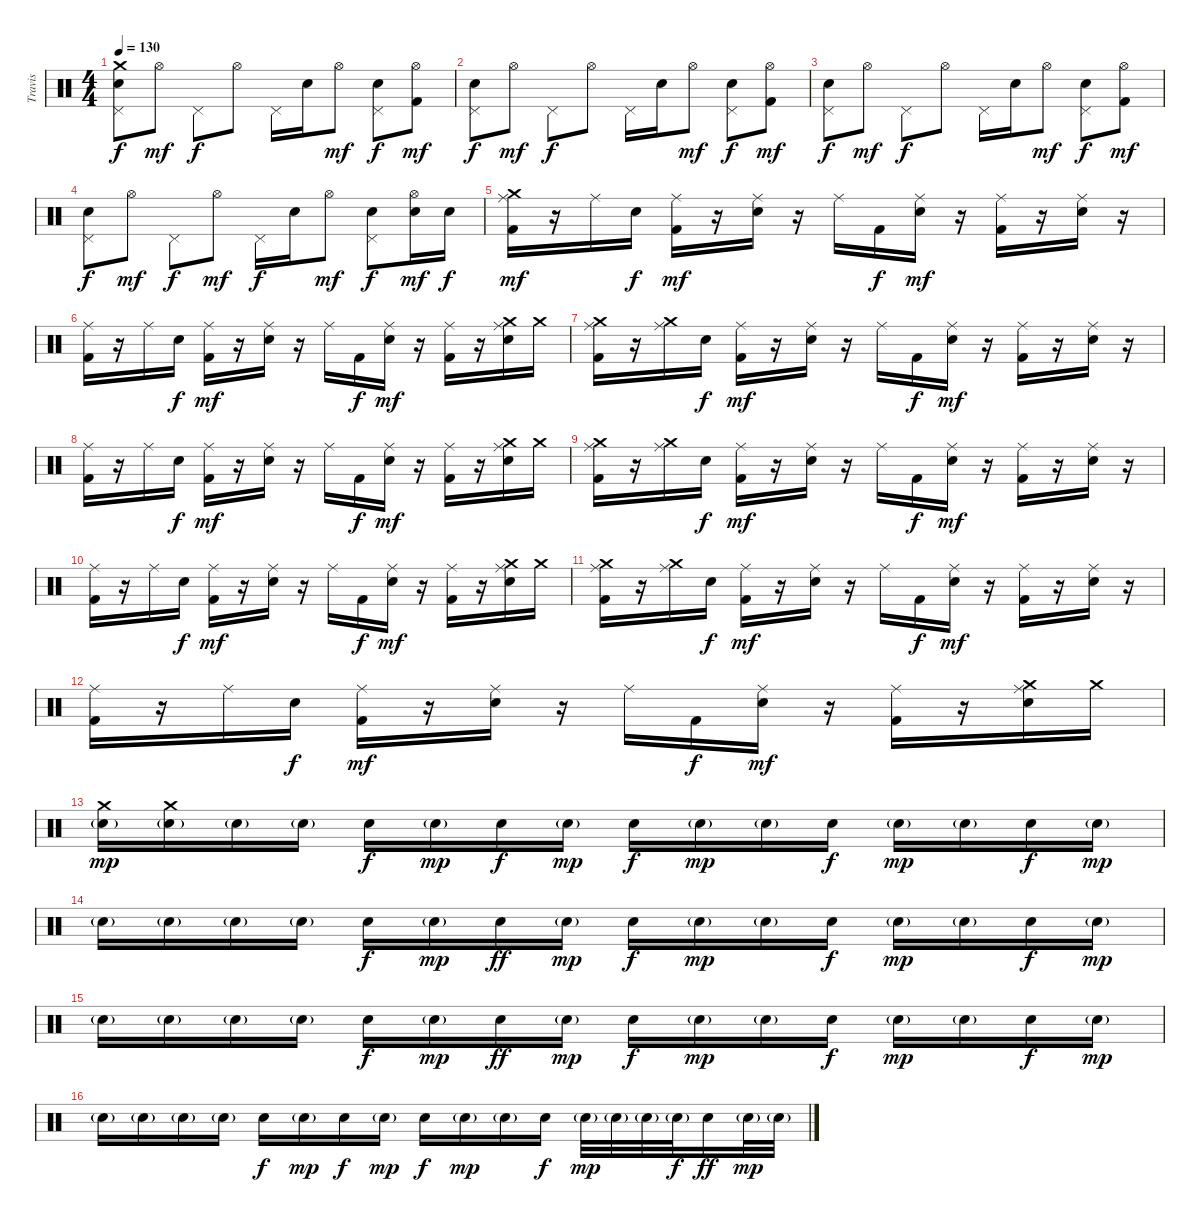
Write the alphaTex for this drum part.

\track ("Travis" "Travis") {instrument percussion}
\staff {score}
\articulation defaults
\ts (4 4)
\tempo 130
\clef neutral
\ks c
("Crash medium (hit)" "Pedal Hi-Hat (hit)" "Electric Snare (hit)").8{dy f} "Hi-Hat (open)".8{dy mf} "Pedal Hi-Hat (hit)".8{dy f} "Hi-Hat (open)".8 "Pedal Hi-Hat (hit)".16 "Electric Snare (hit)".16 "Hi-Hat (open)".8{dy mf} ("Pedal Hi-Hat (hit)" "Electric Snare (hit)").8{dy f} ("Hi-Hat (open)" "Kick (hit) 2").8{dy mf} |
("Pedal Hi-Hat (hit)" "Electric Snare (hit)").8{dy f} "Hi-Hat (open)".8{dy mf} "Pedal Hi-Hat (hit)".8{dy f} "Hi-Hat (open)".8 "Pedal Hi-Hat (hit)".16 "Electric Snare (hit)".16 "Hi-Hat (open)".8{dy mf} ("Pedal Hi-Hat (hit)" "Electric Snare (hit)").8{dy f} ("Hi-Hat (open)" "Kick (hit) 2").8{dy mf} |
("Pedal Hi-Hat (hit)" "Electric Snare (hit)").8{dy f} "Hi-Hat (open)".8{dy mf} "Pedal Hi-Hat (hit)".8{dy f} "Hi-Hat (open)".8 "Pedal Hi-Hat (hit)".16 "Electric Snare (hit)".16 "Hi-Hat (open)".8{dy mf} ("Pedal Hi-Hat (hit)" "Electric Snare (hit)").8{dy f} ("Hi-Hat (open)" "Kick (hit) 2").8{dy mf} |
("Pedal Hi-Hat (hit)" "Electric Snare (hit)").8{dy f} "Hi-Hat (open)".8{dy mf} "Pedal Hi-Hat (hit)".8{dy f} "Hi-Hat (open)".8{dy mf} "Pedal Hi-Hat (hit)".16{dy f} "Electric Snare (hit)".16 "Hi-Hat (open)".8{dy mf} ("Pedal Hi-Hat (hit)" "Electric Snare (hit)").8{dy f} ("Hi-Hat (open)" "Electric Snare (hit)").16{dy mf} "Electric Snare (hit)".16{dy f} |
("Crash medium (hit)" "Ride (middle)" "Kick (hit) 2").16{dy mf} r.16 "Ride (middle)".16 "Electric Snare (hit)".16{dy f} ("Ride (middle)" "Kick (hit) 2").16{dy mf} r.16 ("Ride (middle)" "Electric Snare (hit)").16 r.16 "Ride (middle)".16 "Kick (hit) 2".16{dy f} ("Ride (middle)" "Electric Snare (hit)").16{dy mf} r.16 ("Ride (middle)" "Kick (hit) 2").16 r.16 ("Ride (middle)" "Electric Snare (hit)").16 r.16 |
("Ride (middle)" "Kick (hit) 2").16 r.16 "Ride (middle)".16 "Electric Snare (hit)".16{dy f} ("Ride (middle)" "Kick (hit) 2").16{dy mf} r.16 ("Ride (middle)" "Electric Snare (hit)").16 r.16 "Ride (middle)".16 "Kick (hit) 2".16{dy f} ("Ride (middle)" "Electric Snare (hit)").16{dy mf} r.16 ("Ride (middle)" "Kick (hit) 2").16 r.16 ("Crash medium (hit)" "Ride (middle)" "Electric Snare (hit)").16 "Crash medium (hit)".16 |
("Crash medium (hit)" "Ride (middle)" "Kick (hit) 2").16 r.16 ("Crash medium (hit)" "Ride (middle)").16 "Electric Snare (hit)".16{dy f} ("Ride (middle)" "Kick (hit) 2").16{dy mf} r.16 ("Ride (middle)" "Electric Snare (hit)").16 r.16 "Ride (middle)".16 "Kick (hit) 2".16{dy f} ("Ride (middle)" "Electric Snare (hit)").16{dy mf} r.16 ("Ride (middle)" "Kick (hit) 2").16 r.16 ("Ride (middle)" "Electric Snare (hit)").16 r.16 |
("Ride (middle)" "Kick (hit) 2").16 r.16 "Ride (middle)".16 "Electric Snare (hit)".16{dy f} ("Ride (middle)" "Kick (hit) 2").16{dy mf} r.16 ("Ride (middle)" "Electric Snare (hit)").16 r.16 "Ride (middle)".16 "Kick (hit) 2".16{dy f} ("Ride (middle)" "Electric Snare (hit)").16{dy mf} r.16 ("Ride (middle)" "Kick (hit) 2").16 r.16 ("Crash medium (hit)" "Ride (middle)" "Electric Snare (hit)").16 "Crash medium (hit)".16 |
("Crash medium (hit)" "Ride (middle)" "Kick (hit) 2").16 r.16 ("Crash medium (hit)" "Ride (middle)").16 "Electric Snare (hit)".16{dy f} ("Ride (middle)" "Kick (hit) 2").16{dy mf} r.16 ("Ride (middle)" "Electric Snare (hit)").16 r.16 "Ride (middle)".16 "Kick (hit) 2".16{dy f} ("Ride (middle)" "Electric Snare (hit)").16{dy mf} r.16 ("Ride (middle)" "Kick (hit) 2").16 r.16 ("Ride (middle)" "Electric Snare (hit)").16 r.16 |
("Ride (middle)" "Kick (hit) 2").16 r.16 "Ride (middle)".16 "Electric Snare (hit)".16{dy f} ("Ride (middle)" "Kick (hit) 2").16{dy mf} r.16 ("Ride (middle)" "Electric Snare (hit)").16 r.16 "Ride (middle)".16 "Kick (hit) 2".16{dy f} ("Ride (middle)" "Electric Snare (hit)").16{dy mf} r.16 ("Ride (middle)" "Kick (hit) 2").16 r.16 ("Crash medium (hit)" "Ride (middle)" "Electric Snare (hit)").16 "Crash medium (hit)".16 |
("Crash medium (hit)" "Ride (middle)" "Kick (hit) 2").16 r.16 ("Crash medium (hit)" "Ride (middle)").16 "Electric Snare (hit)".16{dy f} ("Ride (middle)" "Kick (hit) 2").16{dy mf} r.16 ("Ride (middle)" "Electric Snare (hit)").16 r.16 "Ride (middle)".16 "Kick (hit) 2".16{dy f} ("Ride (middle)" "Electric Snare (hit)").16{dy mf} r.16 ("Ride (middle)" "Kick (hit) 2").16 r.16 ("Ride (middle)" "Electric Snare (hit)").16 r.16 |
("Ride (middle)" "Kick (hit) 2").16 r.16 "Ride (middle)".16 "Electric Snare (hit)".16{dy f} ("Ride (middle)" "Kick (hit) 2").16{dy mf} r.16 ("Ride (middle)" "Electric Snare (hit)").16 r.16 "Ride (middle)".16 "Kick (hit) 2".16{dy f} ("Ride (middle)" "Electric Snare (hit)").16{dy mf} r.16 ("Ride (middle)" "Kick (hit) 2").16 r.16 ("Crash medium (hit)" "Ride (middle)" "Electric Snare (hit)").16 "Crash medium (hit)".16 |
("Crash medium (hit)" "Electric Snare (hit)"{g}).16{dy mp} ("Crash medium (hit)" "Electric Snare (hit)"{g}).16 "Electric Snare (hit)"{g}.16 "Electric Snare (hit)"{g}.16 "Electric Snare (hit)".16{dy f} "Electric Snare (hit)"{g}.16{dy mp} "Electric Snare (hit)".16{dy f} "Electric Snare (hit)"{g}.16{dy mp} "Electric Snare (hit)".16{dy f} "Electric Snare (hit)"{g}.16{dy mp} "Electric Snare (hit)"{g}.16 "Electric Snare (hit)".16{dy f} "Electric Snare (hit)"{g}.16{dy mp} "Electric Snare (hit)"{g}.16 "Electric Snare (hit)".16{dy f} "Electric Snare (hit)"{g}.16{dy mp} |
"Electric Snare (hit)"{g}.16 "Electric Snare (hit)"{g}.16 "Electric Snare (hit)"{g}.16 "Electric Snare (hit)"{g}.16 "Electric Snare (hit)".16{dy f} "Electric Snare (hit)"{g}.16{dy mp} "Electric Snare (hit)".16{dy ff} "Electric Snare (hit)"{g}.16{dy mp} "Electric Snare (hit)".16{dy f} "Electric Snare (hit)"{g}.16{dy mp} "Electric Snare (hit)"{g}.16 "Electric Snare (hit)".16{dy f} "Electric Snare (hit)"{g}.16{dy mp} "Electric Snare (hit)"{g}.16 "Electric Snare (hit)".16{dy f} "Electric Snare (hit)"{g}.16{dy mp} |
"Electric Snare (hit)"{g}.16 "Electric Snare (hit)"{g}.16 "Electric Snare (hit)"{g}.16 "Electric Snare (hit)"{g}.16 "Electric Snare (hit)".16{dy f} "Electric Snare (hit)"{g}.16{dy mp} "Electric Snare (hit)".16{dy ff} "Electric Snare (hit)"{g}.16{dy mp} "Electric Snare (hit)".16{dy f} "Electric Snare (hit)"{g}.16{dy mp} "Electric Snare (hit)"{g}.16 "Electric Snare (hit)".16{dy f} "Electric Snare (hit)"{g}.16{dy mp} "Electric Snare (hit)"{g}.16 "Electric Snare (hit)".16{dy f} "Electric Snare (hit)"{g}.16{dy mp} |
"Electric Snare (hit)"{g}.16 "Electric Snare (hit)"{g}.16 "Electric Snare (hit)"{g}.16 "Electric Snare (hit)"{g}.16 "Electric Snare (hit)".16{dy f} "Electric Snare (hit)"{g}.16{dy mp} "Electric Snare (hit)".16{dy f} "Electric Snare (hit)"{g}.16{dy mp} "Electric Snare (hit)".16{dy f} "Electric Snare (hit)"{g}.16{dy mp} "Electric Snare (hit)"{g}.16 "Electric Snare (hit)".16{dy f} "Electric Snare (hit)"{g}.32{dy mp} "Electric Snare (hit)"{g}.32 "Electric Snare (hit)"{g}.32 "Electric Snare (hit)"{g}.32{dy f} "Electric Snare (hit)".16{dy ff} "Electric Snare (hit)"{g}.32{dy mp} "Electric Snare (hit)"{g}.32
